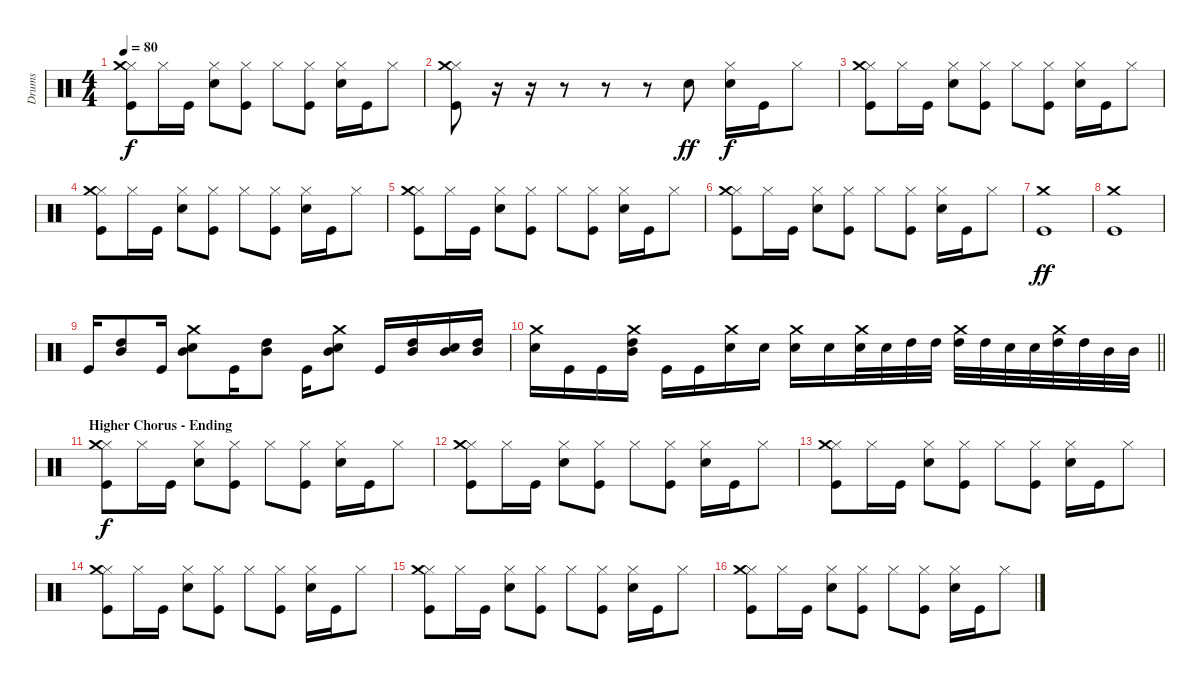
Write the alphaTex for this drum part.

\track ("Drums" "Drums") {instrument percussion}
\staff {score}
\articulation defaults
\ts (4 4)
\tempo 80
\clef neutral
\ks c
("Hi-Hat (closed)" "Kick (hit)" "Crash medium (hit)").8{dy f} "Hi-Hat (closed)".16 "Kick (hit)".16 ("Hi-Hat (closed)" "Snare (hit) 2").8 ("Hi-Hat (closed)" "Kick (hit)").8 "Hi-Hat (closed)".8 ("Hi-Hat (closed)" "Kick (hit)").8 ("Hi-Hat (closed)" "Snare (hit) 2").16 "Kick (hit)".16 "Hi-Hat (closed)".8 |
("Hi-Hat (closed)" "Kick (hit)" "Crash medium (hit)").8 r.16 r.16 r.8 r.8 r.8 "Snare (hit) 2".8{dy ff} ("Hi-Hat (closed)" "Snare (hit) 2").16{dy f} "Kick (hit)".16 "Hi-Hat (closed)".8 |
("Hi-Hat (closed)" "Kick (hit)" "Crash medium (hit)").8 "Hi-Hat (closed)".16 "Kick (hit)".16 ("Hi-Hat (closed)" "Snare (hit) 2").8 ("Hi-Hat (closed)" "Kick (hit)").8 "Hi-Hat (closed)".8 ("Hi-Hat (closed)" "Kick (hit)").8 ("Hi-Hat (closed)" "Snare (hit) 2").16 "Kick (hit)".16 "Hi-Hat (closed)".8 |
("Hi-Hat (closed)" "Kick (hit)" "Crash medium (hit)").8 "Hi-Hat (closed)".16 "Kick (hit)".16 ("Hi-Hat (closed)" "Snare (hit) 2").8 ("Hi-Hat (closed)" "Kick (hit)").8 "Hi-Hat (closed)".8 ("Hi-Hat (closed)" "Kick (hit)").8 ("Hi-Hat (closed)" "Snare (hit) 2").16 "Kick (hit)".16 "Hi-Hat (closed)".8 |
("Hi-Hat (closed)" "Kick (hit)" "Crash medium (hit)").8 "Hi-Hat (closed)".16 "Kick (hit)".16 ("Hi-Hat (closed)" "Snare (hit) 2").8 ("Hi-Hat (closed)" "Kick (hit)").8 "Hi-Hat (closed)".8 ("Hi-Hat (closed)" "Kick (hit)").8 ("Hi-Hat (closed)" "Snare (hit) 2").16 "Kick (hit)".16 "Hi-Hat (closed)".8 |
("Hi-Hat (closed)" "Kick (hit)" "Crash medium (hit)").8 "Hi-Hat (closed)".16 "Kick (hit)".16 ("Hi-Hat (closed)" "Snare (hit) 2").8 ("Hi-Hat (closed)" "Kick (hit)").8 "Hi-Hat (closed)".8 ("Hi-Hat (closed)" "Kick (hit)").8 ("Hi-Hat (closed)" "Snare (hit) 2").16 "Kick (hit)".16 "Hi-Hat (closed)".8 |
("Crash medium (hit)" "Kick (hit)").1{dy ff} |
("Crash medium (hit)" "Kick (hit)").1 |
"Kick (hit)".16 ("Mid Tom (hit)" "High Tom (hit)").8 "Kick (hit)".16 ("Crash medium (hit)" "Snare (hit) 2" "Mid Tom (hit)").8 "Kick (hit)".16 ("Mid Tom (hit)" "High Tom (hit)").8 "Kick (hit)".16 ("Crash medium (hit)" "Snare (hit) 2" "Mid Tom (hit)").8 "Kick (hit)".16 ("Mid Tom (hit)" "High Tom (hit)").16 ("Mid Tom (hit)" "Snare (hit) 2").16 ("Mid Tom (hit)" "High Tom (hit)").16 |
\barLineRight lightlight
("Crash medium (hit)" "Snare (hit) 2").16 "Kick (hit)".16 "Kick (hit)".16 ("Crash medium (hit)" "High Tom (hit)" "Mid Tom (hit)").16 "Kick (hit)".16 "Kick (hit)".16 ("Crash medium (hit)" "Snare (hit) 2").16 "Snare (hit) 2".16 ("Crash medium (hit)" "Snare (hit) 2").16 "Snare (hit) 2".16 ("Crash medium (hit)" "Snare (hit) 2").32 "Snare (hit) 2".32 "High Tom (hit)".32 "High Tom (hit)".32 ("Crash medium (hit)" "High Tom (hit)").32 "High Tom (hit)".32 "Snare (hit) 2".32 "Snare (hit) 2".32 ("Crash medium (hit)" "High Tom (hit)").32 "High Tom (hit)".32 "Mid Tom (hit)".32 "Mid Tom (hit)".32 |
\section ("" "Higher Chorus - Ending")
("Hi-Hat (closed)" "Kick (hit)" "Crash medium (hit)").8{dy f} "Hi-Hat (closed)".16 "Kick (hit)".16 ("Hi-Hat (closed)" "Snare (hit) 2").8 ("Hi-Hat (closed)" "Kick (hit)").8 "Hi-Hat (closed)".8 ("Hi-Hat (closed)" "Kick (hit)").8 ("Hi-Hat (closed)" "Snare (hit) 2").16 "Kick (hit)".16 "Hi-Hat (closed)".8 |
("Hi-Hat (closed)" "Kick (hit)" "Crash medium (hit)").8 "Hi-Hat (closed)".16 "Kick (hit)".16 ("Hi-Hat (closed)" "Snare (hit) 2").8 ("Hi-Hat (closed)" "Kick (hit)").8 "Hi-Hat (closed)".8 ("Hi-Hat (closed)" "Kick (hit)").8 ("Hi-Hat (closed)" "Snare (hit) 2").16 "Kick (hit)".16 "Hi-Hat (closed)".8 |
("Hi-Hat (closed)" "Kick (hit)" "Crash medium (hit)").8 "Hi-Hat (closed)".16 "Kick (hit)".16 ("Hi-Hat (closed)" "Snare (hit) 2").8 ("Hi-Hat (closed)" "Kick (hit)").8 "Hi-Hat (closed)".8 ("Hi-Hat (closed)" "Kick (hit)").8 ("Hi-Hat (closed)" "Snare (hit) 2").16 "Kick (hit)".16 "Hi-Hat (closed)".8 |
("Hi-Hat (closed)" "Kick (hit)" "Crash medium (hit)").8 "Hi-Hat (closed)".16 "Kick (hit)".16 ("Hi-Hat (closed)" "Snare (hit) 2").8 ("Hi-Hat (closed)" "Kick (hit)").8 "Hi-Hat (closed)".8 ("Hi-Hat (closed)" "Kick (hit)").8 ("Hi-Hat (closed)" "Snare (hit) 2").16 "Kick (hit)".16 "Hi-Hat (closed)".8 |
("Hi-Hat (closed)" "Kick (hit)" "Crash medium (hit)").8 "Hi-Hat (closed)".16 "Kick (hit)".16 ("Hi-Hat (closed)" "Snare (hit) 2").8 ("Hi-Hat (closed)" "Kick (hit)").8 "Hi-Hat (closed)".8 ("Hi-Hat (closed)" "Kick (hit)").8 ("Hi-Hat (closed)" "Snare (hit) 2").16 "Kick (hit)".16 "Hi-Hat (closed)".8 |
("Hi-Hat (closed)" "Kick (hit)" "Crash medium (hit)").8 "Hi-Hat (closed)".16 "Kick (hit)".16 ("Hi-Hat (closed)" "Snare (hit) 2").8 ("Hi-Hat (closed)" "Kick (hit)").8 "Hi-Hat (closed)".8 ("Hi-Hat (closed)" "Kick (hit)").8 ("Hi-Hat (closed)" "Snare (hit) 2").16 "Kick (hit)".16 "Hi-Hat (closed)".8
